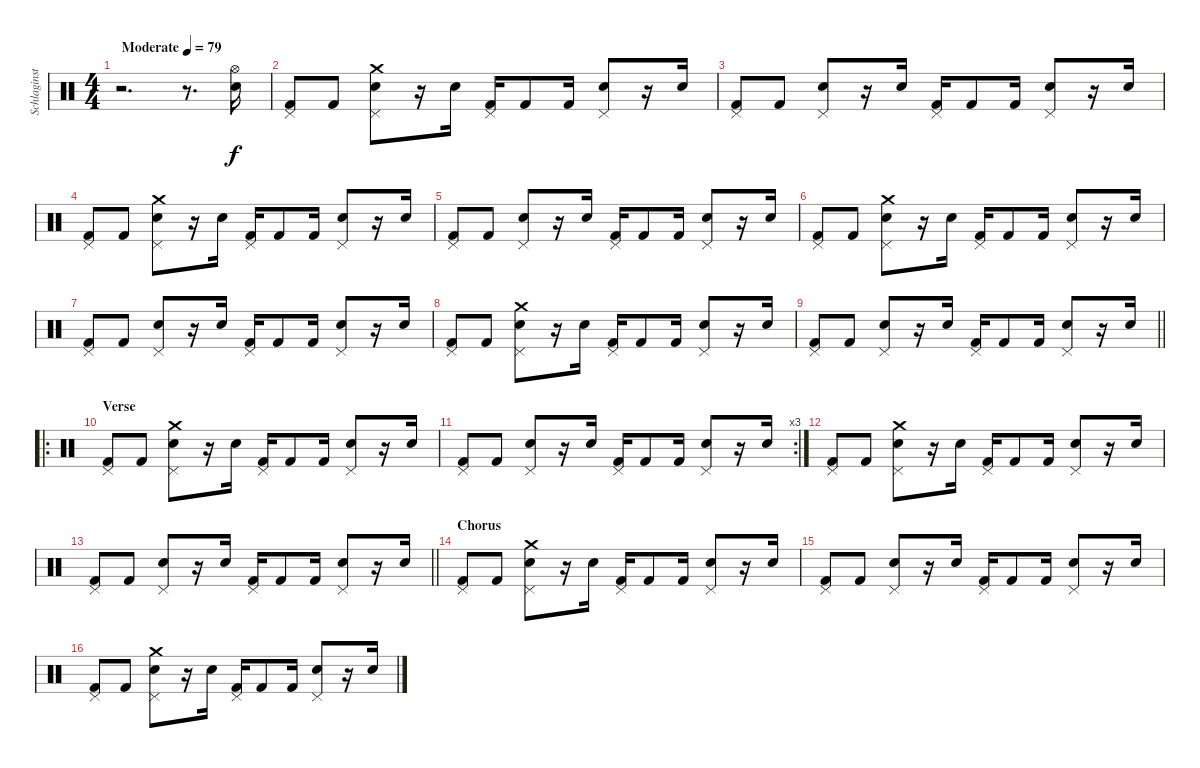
\track ("Schlaginstrumente - Auswahl" "Schlaginst") {instrument percussion}
\staff {score}
\articulation defaults
\ts (4 4)
\tempo (79 "Moderate")
\clef neutral
\ks c
r.2{d dy f} r.8{d} ("Hi-Hat (open)" "Snare (hit) 2").16 |
("Pedal Hi-Hat (hit)" "Kick (hit) 2").8 "Kick (hit) 2".8 ("Pedal Hi-Hat (hit)" "Crash medium (hit)" "Snare (hit) 2").8 r.16 "Snare (hit) 2".16 ("Pedal Hi-Hat (hit)" "Kick (hit) 2").16 "Kick (hit) 2".8 "Kick (hit) 2".16 ("Pedal Hi-Hat (hit)" "Snare (hit) 2").8 r.16 "Snare (hit) 2".16 |
("Pedal Hi-Hat (hit)" "Kick (hit) 2").8 "Kick (hit) 2".8 ("Pedal Hi-Hat (hit)" "Snare (hit) 2").8 r.16 "Snare (hit) 2".16 ("Pedal Hi-Hat (hit)" "Kick (hit) 2").16 "Kick (hit) 2".8 "Kick (hit) 2".16 ("Pedal Hi-Hat (hit)" "Snare (hit) 2").8 r.16 "Snare (hit) 2".16 |
("Pedal Hi-Hat (hit)" "Kick (hit) 2").8 "Kick (hit) 2".8 ("Pedal Hi-Hat (hit)" "Crash medium (hit)" "Snare (hit) 2").8 r.16 "Snare (hit) 2".16 ("Pedal Hi-Hat (hit)" "Kick (hit) 2").16 "Kick (hit) 2".8 "Kick (hit) 2".16 ("Pedal Hi-Hat (hit)" "Snare (hit) 2").8 r.16 "Snare (hit) 2".16 |
("Pedal Hi-Hat (hit)" "Kick (hit) 2").8 "Kick (hit) 2".8 ("Pedal Hi-Hat (hit)" "Snare (hit) 2").8 r.16 "Snare (hit) 2".16 ("Pedal Hi-Hat (hit)" "Kick (hit) 2").16 "Kick (hit) 2".8 "Kick (hit) 2".16 ("Pedal Hi-Hat (hit)" "Snare (hit) 2").8 r.16 "Snare (hit) 2".16 |
("Pedal Hi-Hat (hit)" "Kick (hit) 2").8 "Kick (hit) 2".8 ("Pedal Hi-Hat (hit)" "Crash medium (hit)" "Snare (hit) 2").8 r.16 "Snare (hit) 2".16 ("Pedal Hi-Hat (hit)" "Kick (hit) 2").16 "Kick (hit) 2".8 "Kick (hit) 2".16 ("Pedal Hi-Hat (hit)" "Snare (hit) 2").8 r.16 "Snare (hit) 2".16 |
("Pedal Hi-Hat (hit)" "Kick (hit) 2").8 "Kick (hit) 2".8 ("Pedal Hi-Hat (hit)" "Snare (hit) 2").8 r.16 "Snare (hit) 2".16 ("Pedal Hi-Hat (hit)" "Kick (hit) 2").16 "Kick (hit) 2".8 "Kick (hit) 2".16 ("Pedal Hi-Hat (hit)" "Snare (hit) 2").8 r.16 "Snare (hit) 2".16 |
("Pedal Hi-Hat (hit)" "Kick (hit) 2").8 "Kick (hit) 2".8 ("Pedal Hi-Hat (hit)" "Crash medium (hit)" "Snare (hit) 2").8 r.16 "Snare (hit) 2".16 ("Pedal Hi-Hat (hit)" "Kick (hit) 2").16 "Kick (hit) 2".8 "Kick (hit) 2".16 ("Pedal Hi-Hat (hit)" "Snare (hit) 2").8 r.16 "Snare (hit) 2".16 |
\barLineRight lightlight
("Pedal Hi-Hat (hit)" "Kick (hit) 2").8 "Kick (hit) 2".8 ("Pedal Hi-Hat (hit)" "Snare (hit) 2").8 r.16 "Snare (hit) 2".16 ("Pedal Hi-Hat (hit)" "Kick (hit) 2").16 "Kick (hit) 2".8 "Kick (hit) 2".16 ("Pedal Hi-Hat (hit)" "Snare (hit) 2").8 r.16 "Snare (hit) 2".16 |
\ro
\section ("" "Verse")
("Pedal Hi-Hat (hit)" "Kick (hit) 2").8 "Kick (hit) 2".8 ("Pedal Hi-Hat (hit)" "Crash medium (hit)" "Snare (hit) 2").8 r.16 "Snare (hit) 2".16 ("Pedal Hi-Hat (hit)" "Kick (hit) 2").16 "Kick (hit) 2".8 "Kick (hit) 2".16 ("Pedal Hi-Hat (hit)" "Snare (hit) 2").8 r.16 "Snare (hit) 2".16 |
\rc 3
("Pedal Hi-Hat (hit)" "Kick (hit) 2").8 "Kick (hit) 2".8 ("Pedal Hi-Hat (hit)" "Snare (hit) 2").8 r.16 "Snare (hit) 2".16 ("Pedal Hi-Hat (hit)" "Kick (hit) 2").16 "Kick (hit) 2".8 "Kick (hit) 2".16 ("Pedal Hi-Hat (hit)" "Snare (hit) 2").8 r.16 "Snare (hit) 2".16 |
("Pedal Hi-Hat (hit)" "Kick (hit) 2").8 "Kick (hit) 2".8 ("Pedal Hi-Hat (hit)" "Crash medium (hit)" "Snare (hit) 2").8 r.16 "Snare (hit) 2".16 ("Pedal Hi-Hat (hit)" "Kick (hit) 2").16 "Kick (hit) 2".8 "Kick (hit) 2".16 ("Pedal Hi-Hat (hit)" "Snare (hit) 2").8 r.16 "Snare (hit) 2".16 |
\barLineRight lightlight
("Pedal Hi-Hat (hit)" "Kick (hit) 2").8 "Kick (hit) 2".8 ("Pedal Hi-Hat (hit)" "Snare (hit) 2").8 r.16 "Snare (hit) 2".16 ("Pedal Hi-Hat (hit)" "Kick (hit) 2").16 "Kick (hit) 2".8 "Kick (hit) 2".16 ("Pedal Hi-Hat (hit)" "Snare (hit) 2").8 r.16 "Snare (hit) 2".16 |
\section ("" "Chorus")
("Pedal Hi-Hat (hit)" "Kick (hit) 2").8 "Kick (hit) 2".8 ("Pedal Hi-Hat (hit)" "Crash medium (hit)" "Snare (hit) 2").8 r.16 "Snare (hit) 2".16 ("Pedal Hi-Hat (hit)" "Kick (hit) 2").16 "Kick (hit) 2".8 "Kick (hit) 2".16 ("Pedal Hi-Hat (hit)" "Snare (hit) 2").8 r.16 "Snare (hit) 2".16 |
("Pedal Hi-Hat (hit)" "Kick (hit) 2").8 "Kick (hit) 2".8 ("Pedal Hi-Hat (hit)" "Snare (hit) 2").8 r.16 "Snare (hit) 2".16 ("Pedal Hi-Hat (hit)" "Kick (hit) 2").16 "Kick (hit) 2".8 "Kick (hit) 2".16 ("Pedal Hi-Hat (hit)" "Snare (hit) 2").8 r.16 "Snare (hit) 2".16 |
("Pedal Hi-Hat (hit)" "Kick (hit) 2").8 "Kick (hit) 2".8 ("Pedal Hi-Hat (hit)" "Crash medium (hit)" "Snare (hit) 2").8 r.16 "Snare (hit) 2".16 ("Pedal Hi-Hat (hit)" "Kick (hit) 2").16 "Kick (hit) 2".8 "Kick (hit) 2".16 ("Pedal Hi-Hat (hit)" "Snare (hit) 2").8 r.16 "Snare (hit) 2".16
